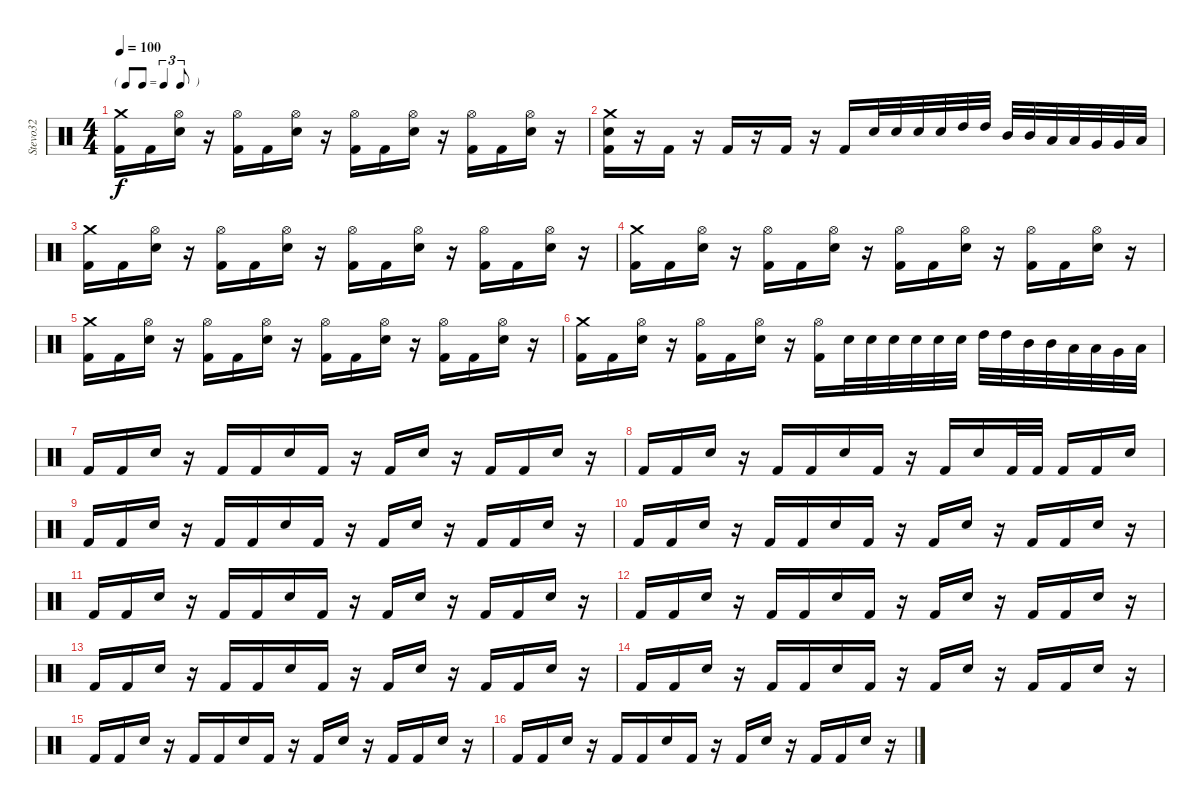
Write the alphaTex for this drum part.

\track ("Stevo32" "Stevo32") {instrument percussion}
\staff {score}
\articulation defaults
\ts (4 4)
\tf triplet8th
\tempo 100
\clef neutral
\ks c
("Crash medium (hit)" "Kick (hit) 2").16{dy f} "Kick (hit) 2".16 ("Hi-Hat (open)" "Electric Snare (hit)").16 r.16 ("Hi-Hat (open)" "Kick (hit) 2").16 "Kick (hit) 2".16 ("Hi-Hat (open)" "Electric Snare (hit)").16 r.16 ("Hi-Hat (open)" "Kick (hit) 2").16 "Kick (hit) 2".16 ("Hi-Hat (open)" "Electric Snare (hit)").16 r.16 ("Hi-Hat (open)" "Kick (hit) 2").16 "Kick (hit) 2".16 ("Hi-Hat (open)" "Electric Snare (hit)").16 r.16 |
("Kick (hit) 2" "Crash medium (hit)" "Electric Snare (hit)").16 r.16 "Kick (hit) 2".16 r.16 "Kick (hit) 2".16 r.16 "Kick (hit) 2".16 r.16 "Kick (hit) 2".16 "Electric Snare (hit)".32 "Electric Snare (hit)".32 "Electric Snare (hit)".32 "Electric Snare (hit)".32 "High Tom (hit)".32 "High Tom (hit)".32 "Mid Tom (hit)".32 "Mid Tom (hit)".32 "Low Tom (hit)".32 "Low Tom (hit)".32 "Very Low Tom (hit)".32 "Very Low Tom (hit)".32 "Low Floor Tom (hit)".32 |
("Crash medium (hit)" "Kick (hit) 2").16 "Kick (hit) 2".16 ("Hi-Hat (open)" "Electric Snare (hit)").16 r.16 ("Hi-Hat (open)" "Kick (hit) 2").16 "Kick (hit) 2".16 ("Hi-Hat (open)" "Electric Snare (hit)").16 r.16 ("Hi-Hat (open)" "Kick (hit) 2").16 "Kick (hit) 2".16 ("Hi-Hat (open)" "Electric Snare (hit)").16 r.16 ("Hi-Hat (open)" "Kick (hit) 2").16 "Kick (hit) 2".16 ("Hi-Hat (open)" "Electric Snare (hit)").16 r.16 |
("Crash medium (hit)" "Kick (hit) 2").16 "Kick (hit) 2".16 ("Hi-Hat (open)" "Electric Snare (hit)").16 r.16 ("Hi-Hat (open)" "Kick (hit) 2").16 "Kick (hit) 2".16 ("Hi-Hat (open)" "Electric Snare (hit)").16 r.16 ("Hi-Hat (open)" "Kick (hit) 2").16 "Kick (hit) 2".16 ("Hi-Hat (open)" "Electric Snare (hit)").16 r.16 ("Hi-Hat (open)" "Kick (hit) 2").16 "Kick (hit) 2".16 ("Hi-Hat (open)" "Electric Snare (hit)").16 r.16 |
("Crash medium (hit)" "Kick (hit) 2").16 "Kick (hit) 2".16 ("Hi-Hat (open)" "Electric Snare (hit)").16 r.16 ("Hi-Hat (open)" "Kick (hit) 2").16 "Kick (hit) 2".16 ("Hi-Hat (open)" "Electric Snare (hit)").16 r.16 ("Hi-Hat (open)" "Kick (hit) 2").16 "Kick (hit) 2".16 ("Hi-Hat (open)" "Electric Snare (hit)").16 r.16 ("Hi-Hat (open)" "Kick (hit) 2").16 "Kick (hit) 2".16 ("Hi-Hat (open)" "Electric Snare (hit)").16 r.16 |
("Crash medium (hit)" "Kick (hit) 2").16 "Kick (hit) 2".16 ("Hi-Hat (open)" "Electric Snare (hit)").16 r.16 ("Hi-Hat (open)" "Kick (hit) 2").16 "Kick (hit) 2".16 ("Hi-Hat (open)" "Electric Snare (hit)").16 r.16 ("Hi-Hat (open)" "Kick (hit) 2").16 "Electric Snare (hit)".32 "Electric Snare (hit)".32 "Electric Snare (hit)".32 "Electric Snare (hit)".32 "Electric Snare (hit)".32 "Electric Snare (hit)".32 "High Tom (hit)".32 "High Tom (hit)".32 "Mid Tom (hit)".32 "Mid Tom (hit)".32 "Low Tom (hit)".32 "Low Tom (hit)".32 "Very Low Tom (hit)".32 "Low Floor Tom (hit)".32 |
"Kick (hit) 2".16 "Kick (hit) 2".16 "Electric Snare (hit)".16 r.16 "Kick (hit) 2".16 "Kick (hit) 2".16 "Electric Snare (hit)".16 "Kick (hit) 2".16 r.16 "Kick (hit) 2".16 "Electric Snare (hit)".16 r.16 "Kick (hit) 2".16 "Kick (hit) 2".16 "Electric Snare (hit)".16 r.16 |
"Kick (hit) 2".16 "Kick (hit) 2".16 "Electric Snare (hit)".16 r.16 "Kick (hit) 2".16 "Kick (hit) 2".16 "Electric Snare (hit)".16 "Kick (hit) 2".16 r.16 "Kick (hit) 2".16 "Electric Snare (hit)".16 "Kick (hit) 2".32 "Kick (hit) 2".32 "Kick (hit) 2".16 "Kick (hit) 2".16 "Electric Snare (hit)".16 |
"Kick (hit) 2".16 "Kick (hit) 2".16 "Electric Snare (hit)".16 r.16 "Kick (hit) 2".16 "Kick (hit) 2".16 "Electric Snare (hit)".16 "Kick (hit) 2".16 r.16 "Kick (hit) 2".16 "Electric Snare (hit)".16 r.16 "Kick (hit) 2".16 "Kick (hit) 2".16 "Electric Snare (hit)".16 r.16 |
"Kick (hit) 2".16 "Kick (hit) 2".16 "Electric Snare (hit)".16 r.16 "Kick (hit) 2".16 "Kick (hit) 2".16 "Electric Snare (hit)".16 "Kick (hit) 2".16 r.16 "Kick (hit) 2".16 "Electric Snare (hit)".16 r.16 "Kick (hit) 2".16 "Kick (hit) 2".16 "Electric Snare (hit)".16 r.16 |
"Kick (hit) 2".16 "Kick (hit) 2".16 "Electric Snare (hit)".16 r.16 "Kick (hit) 2".16 "Kick (hit) 2".16 "Electric Snare (hit)".16 "Kick (hit) 2".16 r.16 "Kick (hit) 2".16 "Electric Snare (hit)".16 r.16 "Kick (hit) 2".16 "Kick (hit) 2".16 "Electric Snare (hit)".16 r.16 |
"Kick (hit) 2".16 "Kick (hit) 2".16 "Electric Snare (hit)".16 r.16 "Kick (hit) 2".16 "Kick (hit) 2".16 "Electric Snare (hit)".16 "Kick (hit) 2".16 r.16 "Kick (hit) 2".16 "Electric Snare (hit)".16 r.16 "Kick (hit) 2".16 "Kick (hit) 2".16 "Electric Snare (hit)".16 r.16 |
"Kick (hit) 2".16 "Kick (hit) 2".16 "Electric Snare (hit)".16 r.16 "Kick (hit) 2".16 "Kick (hit) 2".16 "Electric Snare (hit)".16 "Kick (hit) 2".16 r.16 "Kick (hit) 2".16 "Electric Snare (hit)".16 r.16 "Kick (hit) 2".16 "Kick (hit) 2".16 "Electric Snare (hit)".16 r.16 |
"Kick (hit) 2".16 "Kick (hit) 2".16 "Electric Snare (hit)".16 r.16 "Kick (hit) 2".16 "Kick (hit) 2".16 "Electric Snare (hit)".16 "Kick (hit) 2".16 r.16 "Kick (hit) 2".16 "Electric Snare (hit)".16 r.16 "Kick (hit) 2".16 "Kick (hit) 2".16 "Electric Snare (hit)".16 r.16 |
"Kick (hit) 2".16 "Kick (hit) 2".16 "Electric Snare (hit)".16 r.16 "Kick (hit) 2".16 "Kick (hit) 2".16 "Electric Snare (hit)".16 "Kick (hit) 2".16 r.16 "Kick (hit) 2".16 "Electric Snare (hit)".16 r.16 "Kick (hit) 2".16 "Kick (hit) 2".16 "Electric Snare (hit)".16 r.16 |
"Kick (hit) 2".16 "Kick (hit) 2".16 "Electric Snare (hit)".16 r.16 "Kick (hit) 2".16 "Kick (hit) 2".16 "Electric Snare (hit)".16 "Kick (hit) 2".16 r.16 "Kick (hit) 2".16 "Electric Snare (hit)".16 r.16 "Kick (hit) 2".16 "Kick (hit) 2".16 "Electric Snare (hit)".16 r.16
